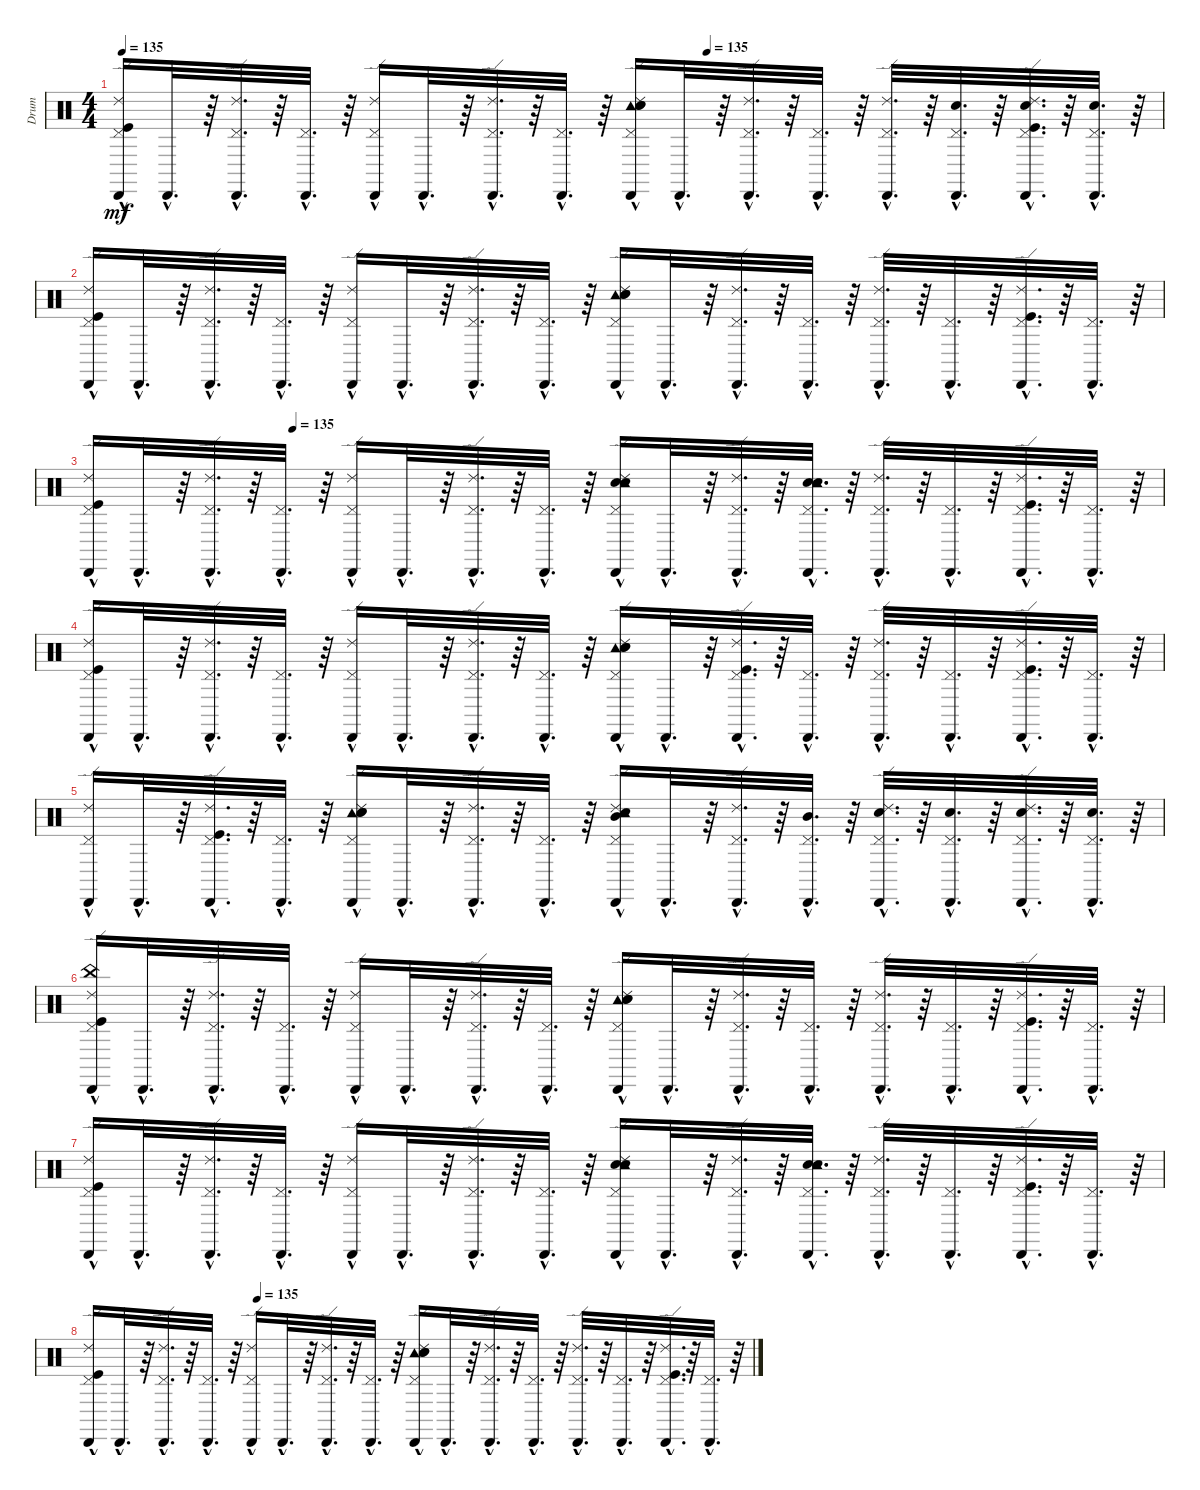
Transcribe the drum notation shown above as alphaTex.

\track ("Drum" "Drum") {instrument percussion}
\staff {score}
\articulation defaults
\ts (4 4)
\tempo 135
\tempo (135 0.5625)
\clef neutral
\ks c
("Cabasa (hit)"{hac} "Pedal Hi-Hat (hit)"{hac} "Ride (edge) 2"{hac} "Kick (hit)"{hac}).16{dy mf} "Cabasa (hit)"{hac}.32{d} r.64 ("Cabasa (hit)"{hac} "Ride (edge) 2"{hac} "Pedal Hi-Hat (hit)"{hac}).32{d} r.64 ("Cabasa (hit)"{hac} "Pedal Hi-Hat (hit)"{hac}).32{d} r.64 ("Cabasa (hit)"{hac} "Ride (edge) 2"{hac} "Pedal Hi-Hat (hit)"{hac}).16 "Cabasa (hit)"{hac}.32{d} r.64 ("Cabasa (hit)"{hac} "Ride (edge) 2"{hac} "Pedal Hi-Hat (hit)"{hac}).32{d} r.64 ("Cabasa (hit)"{hac} "Pedal Hi-Hat (hit)"{hac}).32{d} r.64 ("Cabasa (hit)"{hac} "Tambourine (hit)"{hac} "Ride (edge) 2"{hac} "Snare (hit) 2"{hac} "Electric Snare (hit)"{hac} "Pedal Hi-Hat (hit)"{hac}).16 "Cabasa (hit)"{hac}.32{d} r.64 ("Cabasa (hit)"{hac} "Ride (edge) 2"{hac} "Pedal Hi-Hat (hit)"{hac}).32{d} r.64 ("Cabasa (hit)"{hac} "Pedal Hi-Hat (hit)"{hac}).32{d} r.64 ("Cabasa (hit)"{hac} "Ride (edge) 2"{hac} "Pedal Hi-Hat (hit)"{hac}).32{d} r.64 ("Cabasa (hit)"{hac} "Pedal Hi-Hat (hit)"{hac} "Snare (hit) 2"{hac}).32{d} r.64 ("Cabasa (hit)"{hac} "Ride (edge) 2"{hac} "Kick (hit)"{hac} "Pedal Hi-Hat (hit)"{hac} "Snare (hit) 2"{hac}).32{d} r.64 ("Cabasa (hit)"{hac} "Pedal Hi-Hat (hit)"{hac} "Snare (hit) 2"{hac}).32{d} r.64 |
("Cabasa (hit)"{hac} "Ride (edge) 2"{hac} "Kick (hit)"{hac} "Pedal Hi-Hat (hit)"{hac}).16 "Cabasa (hit)"{hac}.32{d} r.64 ("Cabasa (hit)"{hac} "Ride (edge) 2"{hac} "Pedal Hi-Hat (hit)"{hac}).32{d} r.64 ("Cabasa (hit)"{hac} "Pedal Hi-Hat (hit)"{hac}).32{d} r.64 ("Cabasa (hit)"{hac} "Ride (edge) 2"{hac} "Pedal Hi-Hat (hit)"{hac}).16 "Cabasa (hit)"{hac}.32{d} r.64 ("Cabasa (hit)"{hac} "Ride (edge) 2"{hac} "Pedal Hi-Hat (hit)"{hac}).32{d} r.64 ("Cabasa (hit)"{hac} "Pedal Hi-Hat (hit)"{hac}).32{d} r.64 ("Cabasa (hit)"{hac} "Tambourine (hit)"{hac} "Ride (edge) 2"{hac} "Pedal Hi-Hat (hit)"{hac} "Electric Snare (hit)"{hac} "Snare (hit) 2"{hac}).16 "Cabasa (hit)"{hac}.32{d} r.64 ("Cabasa (hit)"{hac} "Ride (edge) 2"{hac} "Pedal Hi-Hat (hit)"{hac}).32{d} r.64 ("Cabasa (hit)"{hac} "Pedal Hi-Hat (hit)"{hac}).32{d} r.64 ("Cabasa (hit)"{hac} "Ride (edge) 2"{hac} "Pedal Hi-Hat (hit)"{hac}).32{d} r.64 ("Cabasa (hit)"{hac} "Pedal Hi-Hat (hit)"{hac}).32{d} r.64 ("Cabasa (hit)"{hac} "Ride (edge) 2"{hac} "Kick (hit)"{hac} "Pedal Hi-Hat (hit)"{hac}).32{d} r.64 ("Cabasa (hit)"{hac} "Pedal Hi-Hat (hit)"{hac}).32{d} r.64 |
\tempo (135 0.1875)
("Cabasa (hit)"{hac} "Kick (hit)"{hac} "Pedal Hi-Hat (hit)"{hac} "Ride (edge) 2"{hac}).16 "Cabasa (hit)"{hac}.32{d} r.64 ("Cabasa (hit)"{hac} "Ride (edge) 2"{hac} "Pedal Hi-Hat (hit)"{hac}).32{d} r.64 ("Cabasa (hit)"{hac} "Pedal Hi-Hat (hit)"{hac}).32{d} r.64 ("Cabasa (hit)"{hac} "Ride (edge) 2"{hac} "Pedal Hi-Hat (hit)"{hac}).16 "Cabasa (hit)"{hac}.32{d} r.64 ("Cabasa (hit)"{hac} "Ride (edge) 2"{hac} "Pedal Hi-Hat (hit)"{hac}).32{d} r.64 ("Cabasa (hit)"{hac} "Pedal Hi-Hat (hit)"{hac}).32{d} r.64 ("Cabasa (hit)"{hac} "Ride (edge) 2"{hac} "Snare (hit) 2"{hac} "Pedal Hi-Hat (hit)"{hac} "Electric Snare (hit)"{hac} "Tambourine (hit)"{hac}).16 "Cabasa (hit)"{hac}.32{d} r.64 ("Cabasa (hit)"{hac} "Ride (edge) 2"{hac} "Pedal Hi-Hat (hit)"{hac}).32{d} r.64 ("Cabasa (hit)"{hac} "Electric Snare (hit)"{hac} "Pedal Hi-Hat (hit)"{hac} "Tambourine (hit)"{hac} "Snare (hit) 2"{hac}).32{d} r.64 ("Cabasa (hit)"{hac} "Ride (edge) 2"{hac} "Pedal Hi-Hat (hit)"{hac}).32{d} r.64 ("Cabasa (hit)"{hac} "Pedal Hi-Hat (hit)"{hac}).32{d} r.64 ("Cabasa (hit)"{hac} "Ride (edge) 2"{hac} "Kick (hit)"{hac} "Pedal Hi-Hat (hit)"{hac}).32{d} r.64 ("Cabasa (hit)"{hac} "Pedal Hi-Hat (hit)"{hac}).32{d} r.64 |
("Cabasa (hit)"{hac} "Ride (edge) 2"{hac} "Kick (hit)"{hac} "Pedal Hi-Hat (hit)"{hac}).16 "Cabasa (hit)"{hac}.32{d} r.64 ("Cabasa (hit)"{hac} "Ride (edge) 2"{hac} "Pedal Hi-Hat (hit)"{hac}).32{d} r.64 ("Cabasa (hit)"{hac} "Pedal Hi-Hat (hit)"{hac}).32{d} r.64 ("Cabasa (hit)"{hac} "Ride (edge) 2"{hac} "Pedal Hi-Hat (hit)"{hac}).16 "Cabasa (hit)"{hac}.32{d} r.64 ("Cabasa (hit)"{hac} "Ride (edge) 2"{hac} "Pedal Hi-Hat (hit)"{hac}).32{d} r.64 ("Cabasa (hit)"{hac} "Pedal Hi-Hat (hit)"{hac}).32{d} r.64 ("Cabasa (hit)"{hac} "Tambourine (hit)"{hac} "Ride (edge) 2"{hac} "Pedal Hi-Hat (hit)"{hac} "Electric Snare (hit)"{hac} "Snare (hit) 2"{hac}).16 "Cabasa (hit)"{hac}.32{d} r.64 ("Cabasa (hit)"{hac} "Kick (hit)"{hac} "Ride (edge) 2"{hac} "Pedal Hi-Hat (hit)"{hac}).32{d} r.64 ("Cabasa (hit)"{hac} "Pedal Hi-Hat (hit)"{hac}).32{d} r.64 ("Cabasa (hit)"{hac} "Ride (edge) 2"{hac} "Pedal Hi-Hat (hit)"{hac}).32{d} r.64 ("Cabasa (hit)"{hac} "Pedal Hi-Hat (hit)"{hac}).32{d} r.64 ("Cabasa (hit)"{hac} "Ride (edge) 2"{hac} "Kick (hit)"{hac} "Pedal Hi-Hat (hit)"{hac}).32{d} r.64 ("Cabasa (hit)"{hac} "Pedal Hi-Hat (hit)"{hac}).32{d} r.64 |
("Cabasa (hit)"{hac} "Ride (edge) 2"{hac} "Pedal Hi-Hat (hit)"{hac}).16 "Cabasa (hit)"{hac}.32{d} r.64 ("Cabasa (hit)"{hac} "Kick (hit)"{hac} "Pedal Hi-Hat (hit)"{hac} "Ride (edge) 2"{hac}).32{d} r.64 ("Cabasa (hit)"{hac} "Pedal Hi-Hat (hit)"{hac}).32{d} r.64 ("Cabasa (hit)"{hac} "Tambourine (hit)"{hac} "Electric Snare (hit)"{hac} "Snare (hit) 2" "Pedal Hi-Hat (hit)"{hac} "Ride (edge) 2"{hac}).16 "Cabasa (hit)"{hac}.32{d} r.64 ("Cabasa (hit)"{hac} "Pedal Hi-Hat (hit)"{hac} "Ride (edge) 2"{hac}).32{d} r.64 ("Cabasa (hit)"{hac} "Pedal Hi-Hat (hit)"{hac}).32{d} r.64 ("Cabasa (hit)"{hac} "Mid Tom (hit)"{hac} "Ride (edge) 2"{hac} "Pedal Hi-Hat (hit)"{hac} "Tambourine (hit)"{hac} "Electric Snare (hit)"{hac}).16 "Cabasa (hit)"{hac}.32{d} r.64 ("Cabasa (hit)"{hac} "Pedal Hi-Hat (hit)"{hac} "Ride (edge) 2"{hac}).32{d} r.64 ("Cabasa (hit)"{hac} "Mid Tom (hit)"{hac} "Pedal Hi-Hat (hit)"{hac}).32{d} r.64 ("Cabasa (hit)"{hac} "Pedal Hi-Hat (hit)"{hac} "Ride (edge) 2"{hac} "Snare (hit) 2"{hac}).32{d} r.64 ("Cabasa (hit)"{hac} "Pedal Hi-Hat (hit)"{hac} "Snare (hit) 2"{hac}).32{d} r.64 ("Cabasa (hit)"{hac} "Pedal Hi-Hat (hit)"{hac} "Ride (edge) 2"{hac} "Snare (hit) 2"{hac}).32{d} r.64 ("Cabasa (hit)"{hac} "Pedal Hi-Hat (hit)"{hac} "Snare (hit) 2"{hac}).32{d} r.64 |
("Cabasa (hit)"{hac} "China (hit)"{hac} "Pedal Hi-Hat (hit)"{hac} "Kick (hit)"{hac} "Ride (edge) 2"{hac}).16 "Cabasa (hit)"{hac}.32{d} r.64 ("Cabasa (hit)"{hac} "Pedal Hi-Hat (hit)"{hac} "Ride (edge) 2"{hac}).32{d} r.64 ("Cabasa (hit)"{hac} "Pedal Hi-Hat (hit)"{hac}).32{d} r.64 ("Cabasa (hit)"{hac} "Pedal Hi-Hat (hit)"{hac} "Ride (edge) 2"{hac}).16 "Cabasa (hit)"{hac}.32{d} r.64 ("Cabasa (hit)"{hac} "Pedal Hi-Hat (hit)"{hac} "Ride (edge) 2"{hac}).32{d} r.64 ("Cabasa (hit)"{hac} "Pedal Hi-Hat (hit)"{hac}).32{d} r.64 ("Cabasa (hit)"{hac} "Tambourine (hit)"{hac} "Snare (hit) 2"{hac} "Electric Snare (hit)"{hac} "Pedal Hi-Hat (hit)"{hac} "Ride (edge) 2"{hac}).16 "Cabasa (hit)"{hac}.32{d} r.64 ("Cabasa (hit)"{hac} "Pedal Hi-Hat (hit)"{hac} "Ride (edge) 2"{hac}).32{d} r.64 ("Cabasa (hit)"{hac} "Pedal Hi-Hat (hit)"{hac}).32{d} r.64 ("Cabasa (hit)"{hac} "Pedal Hi-Hat (hit)"{hac} "Ride (edge) 2"{hac}).32{d} r.64 ("Cabasa (hit)"{hac} "Pedal Hi-Hat (hit)"{hac}).32{d} r.64 ("Cabasa (hit)"{hac} "Pedal Hi-Hat (hit)"{hac} "Kick (hit)"{hac} "Ride (edge) 2"{hac}).32{d} r.64 ("Cabasa (hit)"{hac} "Pedal Hi-Hat (hit)"{hac}).32{d} r.64 |
("Cabasa (hit)"{hac} "Pedal Hi-Hat (hit)"{hac} "Kick (hit)"{hac} "Ride (edge) 2"{hac}).16 "Cabasa (hit)"{hac}.32{d} r.64 ("Cabasa (hit)"{hac} "Pedal Hi-Hat (hit)"{hac} "Ride (edge) 2"{hac}).32{d} r.64 ("Cabasa (hit)"{hac} "Pedal Hi-Hat (hit)"{hac}).32{d} r.64 ("Cabasa (hit)"{hac} "Pedal Hi-Hat (hit)"{hac} "Ride (edge) 2"{hac}).16 "Cabasa (hit)"{hac}.32{d} r.64 ("Cabasa (hit)"{hac} "Pedal Hi-Hat (hit)"{hac} "Ride (edge) 2"{hac}).32{d} r.64 ("Cabasa (hit)"{hac} "Pedal Hi-Hat (hit)"{hac}).32{d} r.64 ("Cabasa (hit)"{hac} "Pedal Hi-Hat (hit)"{hac} "Snare (hit) 2"{hac} "Ride (edge) 2"{hac} "Tambourine (hit)"{hac} "Electric Snare (hit)"{hac}).16 "Cabasa (hit)"{hac}.32{d} r.64 ("Cabasa (hit)"{hac} "Pedal Hi-Hat (hit)"{hac} "Ride (edge) 2"{hac}).32{d} r.64 ("Cabasa (hit)"{hac} "Pedal Hi-Hat (hit)"{hac} "Electric Snare (hit)"{hac} "Snare (hit) 2"{hac} "Tambourine (hit)"{hac}).32{d} r.64 ("Cabasa (hit)"{hac} "Ride (edge) 2"{hac} "Pedal Hi-Hat (hit)"{hac}).32{d} r.64 ("Cabasa (hit)"{hac} "Pedal Hi-Hat (hit)"{hac}).32{d} r.64 ("Cabasa (hit)"{hac} "Pedal Hi-Hat (hit)"{hac} "Ride (edge) 2"{hac} "Kick (hit)"{hac}).32{d} r.64 ("Cabasa (hit)"{hac} "Pedal Hi-Hat (hit)"{hac}).32{d} r.64 |
\tempo (135 0.25)
("Cabasa (hit)"{hac} "Ride (edge) 2"{hac} "Kick (hit)"{hac} "Pedal Hi-Hat (hit)"{hac}).16 "Cabasa (hit)"{hac}.32{d} r.64 ("Cabasa (hit)"{hac} "Ride (edge) 2"{hac} "Pedal Hi-Hat (hit)"{hac}).32{d} r.64 ("Cabasa (hit)"{hac} "Pedal Hi-Hat (hit)"{hac}).32{d} r.64 ("Cabasa (hit)"{hac} "Ride (edge) 2"{hac} "Pedal Hi-Hat (hit)"{hac}).16 "Cabasa (hit)"{hac}.32{d} r.64 ("Cabasa (hit)"{hac} "Ride (edge) 2"{hac} "Pedal Hi-Hat (hit)"{hac}).32{d} r.64 ("Cabasa (hit)"{hac} "Pedal Hi-Hat (hit)"{hac}).32{d} r.64 ("Cabasa (hit)"{hac} "Tambourine (hit)"{hac} "Ride (edge) 2"{hac} "Pedal Hi-Hat (hit)"{hac} "Electric Snare (hit)"{hac} "Snare (hit) 2"{hac}).16 "Cabasa (hit)"{hac}.32{d} r.64 ("Cabasa (hit)"{hac} "Ride (edge) 2"{hac} "Pedal Hi-Hat (hit)"{hac}).32{d} r.64 ("Cabasa (hit)"{hac} "Pedal Hi-Hat (hit)"{hac}).32{d} r.64 ("Cabasa (hit)"{hac} "Ride (edge) 2"{hac} "Pedal Hi-Hat (hit)"{hac}).32{d} r.64 ("Cabasa (hit)"{hac} "Pedal Hi-Hat (hit)"{hac}).32{d} r.64 ("Cabasa (hit)"{hac} "Ride (edge) 2"{hac} "Kick (hit)"{hac} "Pedal Hi-Hat (hit)"{hac}).32{d} r.64 ("Cabasa (hit)"{hac} "Pedal Hi-Hat (hit)"{hac}).32{d} r.64
